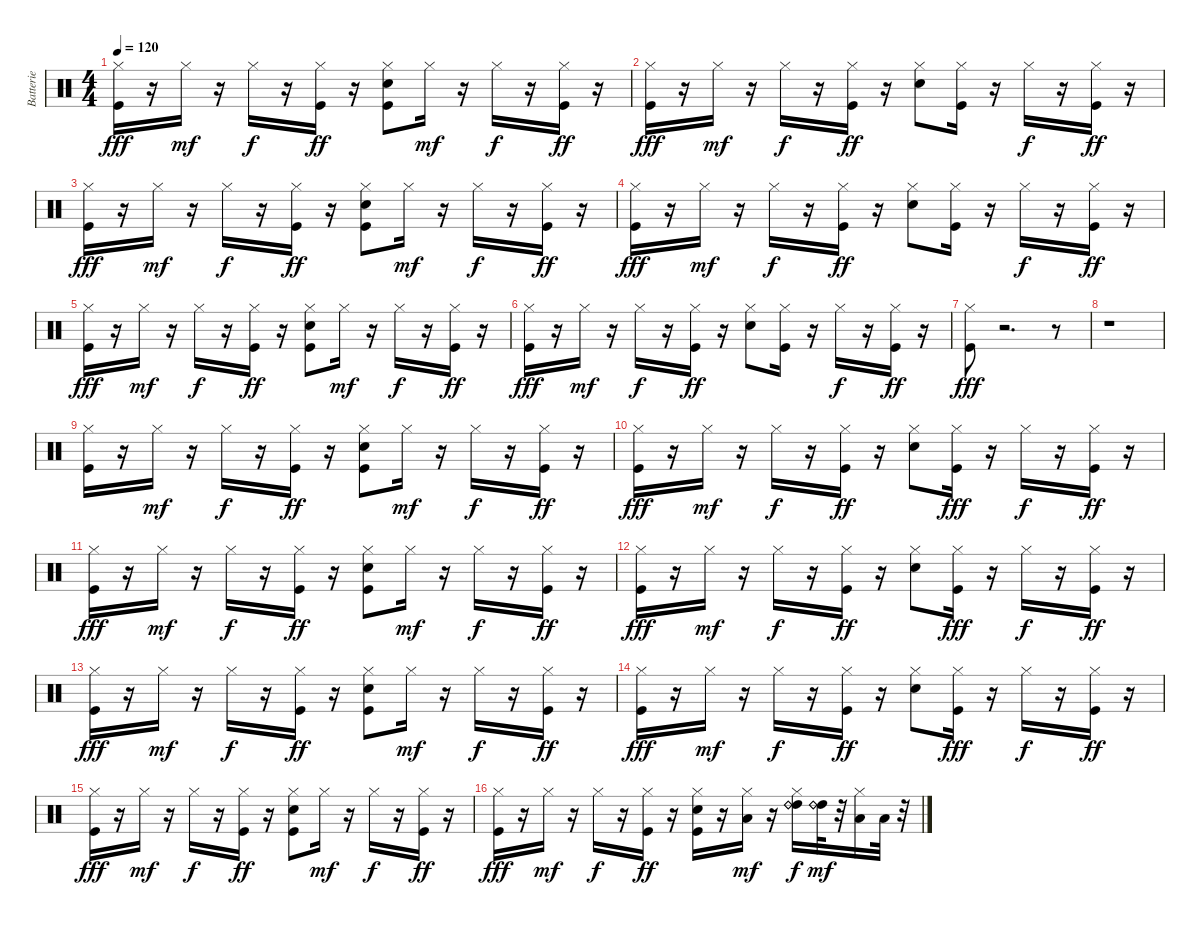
\track ("Batterie" "Batterie") {instrument percussion}
\staff {score}
\articulation defaults
\ts (4 4)
\tempo 120
\clef neutral
\ks c
("Hi-Hat (closed)" "Kick (hit)").16{dy fff} r.16 "Hi-Hat (closed)".16{dy mf} r.16 "Hi-Hat (closed)".16{dy f} r.16 ("Hi-Hat (closed)" "Kick (hit)").16{dy ff} r.16 ("Hi-Hat (closed)" "Kick (hit)" "Electric Snare (hit)").8 "Hi-Hat (closed)".16{dy mf} r.16 "Hi-Hat (closed)".16{dy f} r.16 ("Hi-Hat (closed)" "Kick (hit)").16{dy ff} r.16 |
("Hi-Hat (closed)" "Kick (hit)").16{dy fff} r.16 "Hi-Hat (closed)".16{dy mf} r.16 "Hi-Hat (closed)".16{dy f} r.16 ("Hi-Hat (closed)" "Kick (hit)").16{dy ff} r.16 ("Hi-Hat (closed)" "Electric Snare (hit)").8 ("Hi-Hat (closed)" "Kick (hit)").16 r.16 "Hi-Hat (closed)".16{dy f} r.16 ("Hi-Hat (closed)" "Kick (hit)").16{dy ff} r.16 |
("Hi-Hat (closed)" "Kick (hit)").16{dy fff} r.16 "Hi-Hat (closed)".16{dy mf} r.16 "Hi-Hat (closed)".16{dy f} r.16 ("Hi-Hat (closed)" "Kick (hit)").16{dy ff} r.16 ("Hi-Hat (closed)" "Kick (hit)" "Electric Snare (hit)").8 "Hi-Hat (closed)".16{dy mf} r.16 "Hi-Hat (closed)".16{dy f} r.16 ("Hi-Hat (closed)" "Kick (hit)").16{dy ff} r.16 |
("Hi-Hat (closed)" "Kick (hit)").16{dy fff} r.16 "Hi-Hat (closed)".16{dy mf} r.16 "Hi-Hat (closed)".16{dy f} r.16 ("Hi-Hat (closed)" "Kick (hit)").16{dy ff} r.16 ("Hi-Hat (closed)" "Electric Snare (hit)").8 ("Hi-Hat (closed)" "Kick (hit)").16 r.16 "Hi-Hat (closed)".16{dy f} r.16 ("Hi-Hat (closed)" "Kick (hit)").16{dy ff} r.16 |
("Hi-Hat (closed)" "Kick (hit)").16{dy fff} r.16 "Hi-Hat (closed)".16{dy mf} r.16 "Hi-Hat (closed)".16{dy f} r.16 ("Hi-Hat (closed)" "Kick (hit)").16{dy ff} r.16 ("Hi-Hat (closed)" "Kick (hit)" "Electric Snare (hit)").8 "Hi-Hat (closed)".16{dy mf} r.16 "Hi-Hat (closed)".16{dy f} r.16 ("Hi-Hat (closed)" "Kick (hit)").16{dy ff} r.16 |
("Hi-Hat (closed)" "Kick (hit)").16{dy fff} r.16 "Hi-Hat (closed)".16{dy mf} r.16 "Hi-Hat (closed)".16{dy f} r.16 ("Hi-Hat (closed)" "Kick (hit)").16{dy ff} r.16 ("Hi-Hat (closed)" "Electric Snare (hit)").8 ("Hi-Hat (closed)" "Kick (hit)").16 r.16 "Hi-Hat (closed)".16{dy f} r.16 ("Hi-Hat (closed)" "Kick (hit)").16{dy ff} r.16 |
("Hi-Hat (closed)" "Kick (hit)").8{dy fff} r.2{d} r.8 |
r.1 |
("Hi-Hat (closed)" "Kick (hit)").16 r.16 "Hi-Hat (closed)".16{dy mf} r.16 "Hi-Hat (closed)".16{dy f} r.16 ("Hi-Hat (closed)" "Kick (hit)").16{dy ff} r.16 ("Hi-Hat (closed)" "Kick (hit)" "Electric Snare (hit)").8 "Hi-Hat (closed)".16{dy mf} r.16 "Hi-Hat (closed)".16{dy f} r.16 ("Hi-Hat (closed)" "Kick (hit)").16{dy ff} r.16 |
("Hi-Hat (closed)" "Kick (hit)").16{dy fff} r.16 "Hi-Hat (closed)".16{dy mf} r.16 "Hi-Hat (closed)".16{dy f} r.16 ("Hi-Hat (closed)" "Kick (hit)").16{dy ff} r.16 ("Hi-Hat (closed)" "Electric Snare (hit)").8 ("Hi-Hat (closed)" "Kick (hit)").16{dy fff} r.16 "Hi-Hat (closed)".16{dy f} r.16 ("Hi-Hat (closed)" "Kick (hit)").16{dy ff} r.16 |
("Hi-Hat (closed)" "Kick (hit)").16{dy fff} r.16 "Hi-Hat (closed)".16{dy mf} r.16 "Hi-Hat (closed)".16{dy f} r.16 ("Hi-Hat (closed)" "Kick (hit)").16{dy ff} r.16 ("Hi-Hat (closed)" "Kick (hit)" "Electric Snare (hit)").8 "Hi-Hat (closed)".16{dy mf} r.16 "Hi-Hat (closed)".16{dy f} r.16 ("Hi-Hat (closed)" "Kick (hit)").16{dy ff} r.16 |
("Hi-Hat (closed)" "Kick (hit)").16{dy fff} r.16 "Hi-Hat (closed)".16{dy mf} r.16 "Hi-Hat (closed)".16{dy f} r.16 ("Hi-Hat (closed)" "Kick (hit)").16{dy ff} r.16 ("Hi-Hat (closed)" "Electric Snare (hit)").8 ("Hi-Hat (closed)" "Kick (hit)").16{dy fff} r.16 "Hi-Hat (closed)".16{dy f} r.16 ("Hi-Hat (closed)" "Kick (hit)").16{dy ff} r.16 |
("Hi-Hat (closed)" "Kick (hit)").16{dy fff} r.16 "Hi-Hat (closed)".16{dy mf} r.16 "Hi-Hat (closed)".16{dy f} r.16 ("Hi-Hat (closed)" "Kick (hit)").16{dy ff} r.16 ("Hi-Hat (closed)" "Kick (hit)" "Electric Snare (hit)").8 "Hi-Hat (closed)".16{dy mf} r.16 "Hi-Hat (closed)".16{dy f} r.16 ("Hi-Hat (closed)" "Kick (hit)").16{dy ff} r.16 |
("Hi-Hat (closed)" "Kick (hit)").16{dy fff} r.16 "Hi-Hat (closed)".16{dy mf} r.16 "Hi-Hat (closed)".16{dy f} r.16 ("Hi-Hat (closed)" "Kick (hit)").16{dy ff} r.16 ("Hi-Hat (closed)" "Electric Snare (hit)").8 ("Hi-Hat (closed)" "Kick (hit)").16{dy fff} r.16 "Hi-Hat (closed)".16{dy f} r.16 ("Hi-Hat (closed)" "Kick (hit)").16{dy ff} r.16 |
("Hi-Hat (closed)" "Kick (hit)").16{dy fff} r.16 "Hi-Hat (closed)".16{dy mf} r.16 "Hi-Hat (closed)".16{dy f} r.16 ("Hi-Hat (closed)" "Kick (hit)").16{dy ff} r.16 ("Hi-Hat (closed)" "Kick (hit)" "Electric Snare (hit)").8 "Hi-Hat (closed)".16{dy mf} r.16 "Hi-Hat (closed)".16{dy f} r.16 ("Hi-Hat (closed)" "Kick (hit)").16{dy ff} r.16 |
("Hi-Hat (closed)" "Kick (hit)").16{dy fff} r.16 "Hi-Hat (closed)".16{dy mf} r.16 "Hi-Hat (closed)".16{dy f} r.16 ("Hi-Hat (closed)" "Kick (hit)").16{dy ff} r.16 ("Hi-Hat (closed)" "Kick (hit)" "Electric Snare (hit)").16 r.16 ("Hi-Hat (closed)" "Low Tom (hit)").16{dy mf} r.16 ("Hi-Hat (closed)" "High Tom (hit)" "Ride (bell) 2" "Ride (bell) 2").16{dy f} ("High Tom (hit)" "Ride (bell) 2" "Ride (bell) 2").32{dy mf} r.32 ("Hi-Hat (closed)" "Low Tom (hit)").16 "Low Tom (hit)".32 r.32
